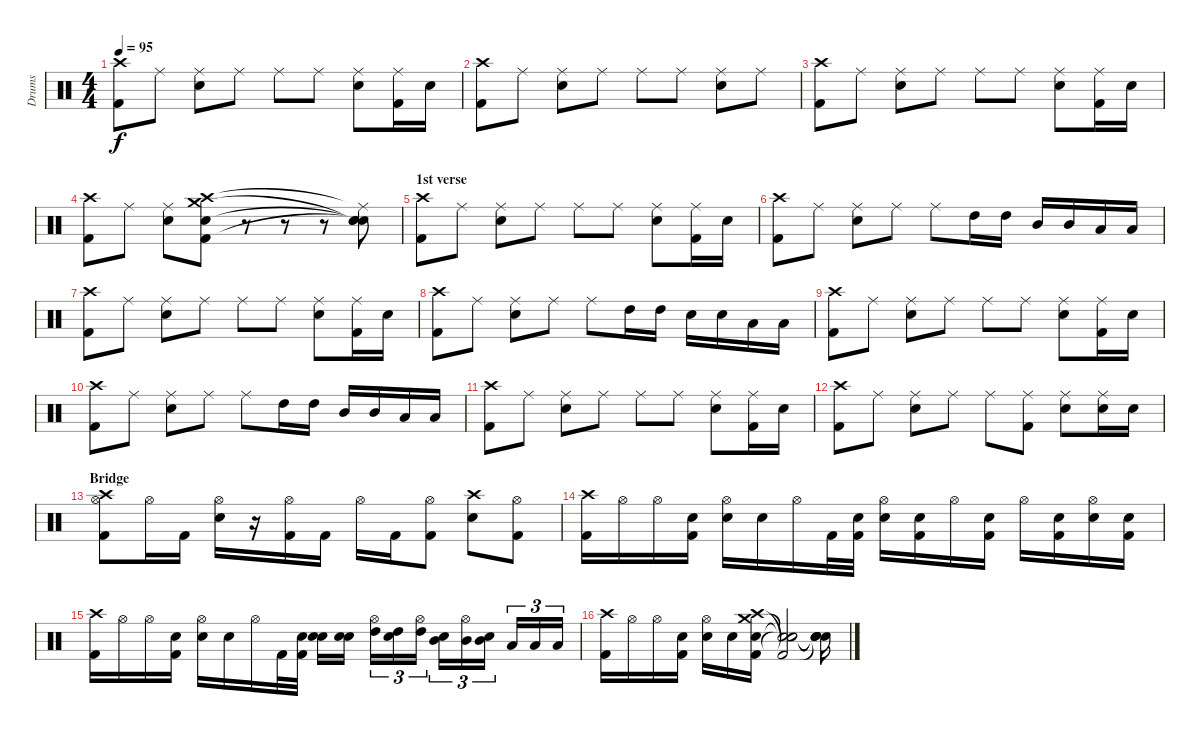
\track ("Drums" "Drums") {instrument percussion}
\staff {score}
\articulation defaults
\ts (4 4)
\tempo 95
\clef neutral
\ks c
("Crash high (hit)" "Kick (hit) 2").8{dy f} "Ride (middle)".8 ("Ride (middle)" "Electric Snare (hit)").8 "Ride (middle)".8 "Ride (middle)".8 "Ride (middle)".8 ("Ride (middle)" "Electric Snare (hit)").8 ("Ride (middle)" "Kick (hit) 2").16 "Electric Snare (hit)".16 |
("Crash high (hit)" "Kick (hit) 2").8 "Ride (middle)".8 ("Ride (middle)" "Electric Snare (hit)").8 "Ride (middle)".8 "Ride (middle)".8 "Ride (middle)".8 ("Ride (middle)" "Electric Snare (hit)").8 "Ride (middle)".8 |
("Crash high (hit)" "Kick (hit) 2").8 "Ride (middle)".8 ("Ride (middle)" "Electric Snare (hit)").8 "Ride (middle)".8 "Ride (middle)".8 "Ride (middle)".8 ("Ride (middle)" "Electric Snare (hit)").8 ("Ride (middle)" "Kick (hit) 2").16 "Electric Snare (hit)".16 |
("Crash high (hit)" "Kick (hit) 2").8 "Ride (middle)".8 ("Ride (middle)" "Electric Snare (hit)").8 ("Crash high (hit)" "Crash medium (hit)" "Kick (hit) 2" "Electric Snare (hit)").8 r.8 r.8 r.8 ("Ride (middle)"{t} "Snare (hit)"{t} "Snare (hit)"{t} "Snare (hit)"{t}).8 |
\section ("" "1st verse")
("Crash high (hit)" "Kick (hit) 2").8 "Ride (middle)".8 ("Ride (middle)" "Electric Snare (hit)").8 "Ride (middle)".8 "Ride (middle)".8 "Ride (middle)".8 ("Ride (middle)" "Electric Snare (hit)").8 ("Ride (middle)" "Kick (hit) 2").16 "Electric Snare (hit)".16 |
("Crash high (hit)" "Kick (hit) 2").8 "Ride (middle)".8 ("Ride (middle)" "Electric Snare (hit)").8 "Ride (middle)".8 "Ride (middle)".8 "High Tom (hit)".16 "High Tom (hit)".16 "Mid Tom (hit)".16 "Mid Tom (hit)".16 "Low Tom (hit)".16 "Low Tom (hit)".16 |
("Crash high (hit)" "Kick (hit) 2").8 "Ride (middle)".8 ("Ride (middle)" "Electric Snare (hit)").8 "Ride (middle)".8 "Ride (middle)".8 "Ride (middle)".8 ("Ride (middle)" "Electric Snare (hit)").8 ("Ride (middle)" "Kick (hit) 2").16 "Electric Snare (hit)".16 |
("Crash high (hit)" "Kick (hit) 2").8 "Ride (middle)".8 ("Ride (middle)" "Electric Snare (hit)").8 "Ride (middle)".8 "Ride (middle)".8 "High Tom (hit)".16 "High Tom (hit)".16 "Electric Snare (hit)".16 "Electric Snare (hit)".16 "Low Tom (hit)".16 "Low Tom (hit)".16 |
("Crash high (hit)" "Kick (hit) 2").8 "Ride (middle)".8 ("Ride (middle)" "Electric Snare (hit)").8 "Ride (middle)".8 "Ride (middle)".8 "Ride (middle)".8 ("Ride (middle)" "Electric Snare (hit)").8 ("Ride (middle)" "Kick (hit) 2").16 "Electric Snare (hit)".16 |
("Crash high (hit)" "Kick (hit) 2").8 "Ride (middle)".8 ("Ride (middle)" "Electric Snare (hit)").8 "Ride (middle)".8 "Ride (middle)".8 "High Tom (hit)".16 "High Tom (hit)".16 "Mid Tom (hit)".16 "Mid Tom (hit)".16 "Low Tom (hit)".16 "Low Tom (hit)".16 |
("Crash high (hit)" "Kick (hit) 2").8 "Ride (middle)".8 ("Ride (middle)" "Electric Snare (hit)").8 "Ride (middle)".8 "Ride (middle)".8 "Ride (middle)".8 ("Ride (middle)" "Electric Snare (hit)").8 ("Ride (middle)" "Kick (hit) 2").16 "Electric Snare (hit)".16 |
("Crash high (hit)" "Kick (hit) 2").8 "Ride (middle)".8 ("Ride (middle)" "Electric Snare (hit)").8 "Ride (middle)".8 "Ride (middle)".8 ("Ride (middle)" "Kick (hit) 2").8 ("Ride (middle)" "Electric Snare (hit)").8 ("Ride (middle)" "Electric Snare (hit)").16 "Electric Snare (hit)".16 |
\section ("" "Bridge")
("Hi-Hat (open)" "Crash high (hit)" "Kick (hit) 2").8 "Hi-Hat (open)".16 "Kick (hit) 2".16 ("Hi-Hat (open)" "Electric Snare (hit)").16 r.16 ("Hi-Hat (open)" "Kick (hit) 2").16 "Kick (hit) 2".16 "Hi-Hat (open)".16 "Kick (hit) 2".16 ("Hi-Hat (open)" "Kick (hit) 2").8 ("Electric Snare (hit)" "Crash high (hit)").8 ("Hi-Hat (open)" "Kick (hit) 2").8 |
("Crash high (hit)" "Kick (hit) 2").16 "Hi-Hat (open)"{x}.16 "Hi-Hat (open)".16 ("Snare (hit)"{x} "Kick (hit) 2").16 ("Hi-Hat (open)" "Electric Snare (hit)").16 "Snare (hit)"{x}.16 "Hi-Hat (open)".16 "Kick (hit) 2".32 ("Snare (hit)"{x} "Kick (hit) 2").32 ("Hi-Hat (open)" "Electric Snare (hit)").16 ("Snare (hit)"{x} "Kick (hit) 2").16 "Hi-Hat (open)"{x}.16 ("Snare (hit)"{x} "Kick (hit) 2").16 "Hi-Hat (open)"{x}.16 ("Snare (hit)"{x} "Kick (hit) 2").16 ("Hi-Hat (open)"{x} "Electric Snare (hit)").16 ("Snare (hit)"{x} "Kick (hit) 2").16 |
("Crash high (hit)" "Kick (hit) 2").16 "Hi-Hat (open)"{x}.16 "Hi-Hat (open)".16 ("Snare (hit)"{x} "Kick (hit) 2").16 ("Hi-Hat (open)" "Electric Snare (hit)").16 "Snare (hit)"{x}.16 "Hi-Hat (open)".16 "Kick (hit) 2".32 ("Snare (hit)"{x} "Kick (hit) 2").32 ("Electric Snare (hit)" "Electric Snare (hit)").16 ("Snare (hit)"{x} "Electric Snare (hit)").16 ("Hi-Hat (open)"{x} "High Tom (hit)").16{tu (3 2)} ("Snare (hit)"{x} "High Tom (hit)").16{tu (3 2)} ("Hi-Hat (open)"{x} "High Tom (hit)").16{tu (3 2)} ("Snare (hit)"{x} "Mid Tom (hit)").16{tu (3 2)} ("Hi-Hat (open)"{x} "Mid Tom (hit)").16{tu (3 2)} ("Snare (hit)"{x} "Mid Tom (hit)").16{tu (3 2)} "Low Tom (hit)".16{tu (3 2)} "Low Tom (hit)".16{tu (3 2)} "Low Tom (hit)".16{tu (3 2)} |
("Crash high (hit)" "Kick (hit) 2").16 "Hi-Hat (open)"{x}.16 "Hi-Hat (open)".16 ("Snare (hit)"{x} "Kick (hit) 2").16 ("Hi-Hat (open)" "Electric Snare (hit)").16 "Snare (hit)"{x}.16 ("Crash medium (hit)" "Crash high (hit)" "Electric Snare (hit)" "Kick (hit) 2").16 ("Snare (hit)"{t} "Kick (hit) 2"{t} "Snare (hit)"{t} "Snare (hit)"{t}).2 ("Snare (hit)"{t} "Snare (hit)"{t} "Snare (hit)"{t} "Snare (hit)"{t}).16
